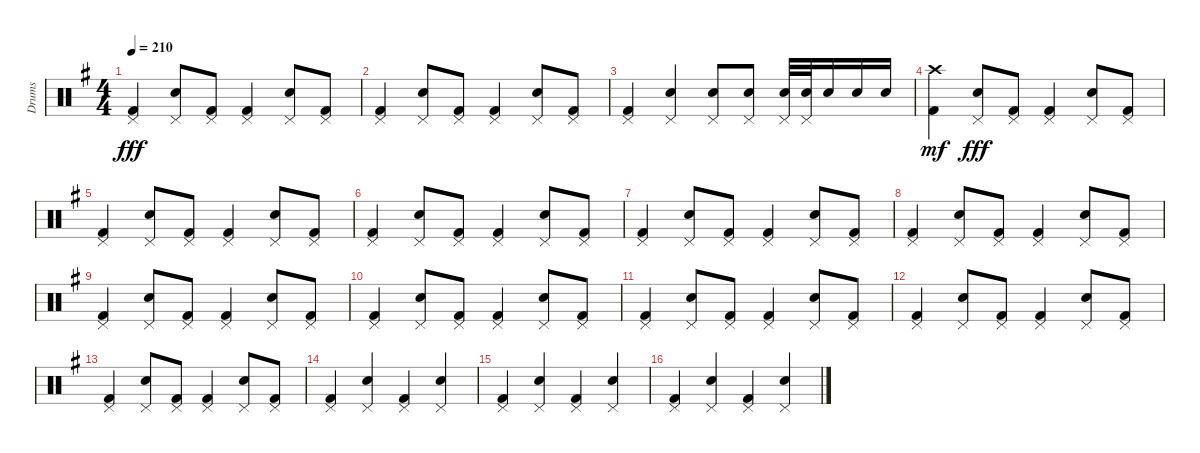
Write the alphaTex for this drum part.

\track ("Drums" "Drums") {instrument percussion}
\staff {score}
\articulation defaults
\ts (4 4)
\tempo 210
\clef neutral
\ks g
("Kick (hit) 2" "Pedal Hi-Hat (hit)").4{dy fff} ("Electric Snare (hit)" "Pedal Hi-Hat (hit)").8 ("Kick (hit) 2" "Pedal Hi-Hat (hit)").8 ("Kick (hit) 2" "Pedal Hi-Hat (hit)").4 ("Electric Snare (hit)" "Pedal Hi-Hat (hit)").8 ("Kick (hit) 2" "Pedal Hi-Hat (hit)").8 |
("Kick (hit) 2" "Pedal Hi-Hat (hit)").4 ("Electric Snare (hit)" "Pedal Hi-Hat (hit)").8 ("Kick (hit) 2" "Pedal Hi-Hat (hit)").8 ("Kick (hit) 2" "Pedal Hi-Hat (hit)").4 ("Electric Snare (hit)" "Pedal Hi-Hat (hit)").8 ("Kick (hit) 2" "Pedal Hi-Hat (hit)").8 |
("Kick (hit) 2" "Pedal Hi-Hat (hit)").4 ("Electric Snare (hit)" "Pedal Hi-Hat (hit)").4 ("Electric Snare (hit)" "Pedal Hi-Hat (hit)").8 ("Electric Snare (hit)" "Pedal Hi-Hat (hit)").8 ("Electric Snare (hit)" "Pedal Hi-Hat (hit)").32 ("Electric Snare (hit)" "Pedal Hi-Hat (hit)").32 "Electric Snare (hit)".16 "Electric Snare (hit)".16 "Electric Snare (hit)".16 |
("Kick (hit) 2" "Crash high (hit)").4{dy mf} ("Electric Snare (hit)" "Pedal Hi-Hat (hit)").8{dy fff} ("Kick (hit) 2" "Pedal Hi-Hat (hit)").8 ("Kick (hit) 2" "Pedal Hi-Hat (hit)").4 ("Electric Snare (hit)" "Pedal Hi-Hat (hit)").8 ("Kick (hit) 2" "Pedal Hi-Hat (hit)").8 |
("Kick (hit) 2" "Pedal Hi-Hat (hit)").4 ("Electric Snare (hit)" "Pedal Hi-Hat (hit)").8 ("Kick (hit) 2" "Pedal Hi-Hat (hit)").8 ("Kick (hit) 2" "Pedal Hi-Hat (hit)").4 ("Electric Snare (hit)" "Pedal Hi-Hat (hit)").8 ("Kick (hit) 2" "Pedal Hi-Hat (hit)").8 |
("Kick (hit) 2" "Pedal Hi-Hat (hit)").4 ("Electric Snare (hit)" "Pedal Hi-Hat (hit)").8 ("Kick (hit) 2" "Pedal Hi-Hat (hit)").8 ("Kick (hit) 2" "Pedal Hi-Hat (hit)").4 ("Electric Snare (hit)" "Pedal Hi-Hat (hit)").8 ("Kick (hit) 2" "Pedal Hi-Hat (hit)").8 |
("Kick (hit) 2" "Pedal Hi-Hat (hit)").4 ("Electric Snare (hit)" "Pedal Hi-Hat (hit)").8 ("Kick (hit) 2" "Pedal Hi-Hat (hit)").8 ("Kick (hit) 2" "Pedal Hi-Hat (hit)").4 ("Electric Snare (hit)" "Pedal Hi-Hat (hit)").8 ("Kick (hit) 2" "Pedal Hi-Hat (hit)").8 |
("Kick (hit) 2" "Pedal Hi-Hat (hit)").4 ("Electric Snare (hit)" "Pedal Hi-Hat (hit)").8 ("Kick (hit) 2" "Pedal Hi-Hat (hit)").8 ("Kick (hit) 2" "Pedal Hi-Hat (hit)").4 ("Electric Snare (hit)" "Pedal Hi-Hat (hit)").8 ("Kick (hit) 2" "Pedal Hi-Hat (hit)").8 |
("Kick (hit) 2" "Pedal Hi-Hat (hit)").4 ("Electric Snare (hit)" "Pedal Hi-Hat (hit)").8 ("Kick (hit) 2" "Pedal Hi-Hat (hit)").8 ("Kick (hit) 2" "Pedal Hi-Hat (hit)").4 ("Electric Snare (hit)" "Pedal Hi-Hat (hit)").8 ("Kick (hit) 2" "Pedal Hi-Hat (hit)").8 |
("Kick (hit) 2" "Pedal Hi-Hat (hit)").4 ("Electric Snare (hit)" "Pedal Hi-Hat (hit)").8 ("Kick (hit) 2" "Pedal Hi-Hat (hit)").8 ("Kick (hit) 2" "Pedal Hi-Hat (hit)").4 ("Electric Snare (hit)" "Pedal Hi-Hat (hit)").8 ("Kick (hit) 2" "Pedal Hi-Hat (hit)").8 |
("Kick (hit) 2" "Pedal Hi-Hat (hit)").4 ("Electric Snare (hit)" "Pedal Hi-Hat (hit)").8 ("Kick (hit) 2" "Pedal Hi-Hat (hit)").8 ("Kick (hit) 2" "Pedal Hi-Hat (hit)").4 ("Electric Snare (hit)" "Pedal Hi-Hat (hit)").8 ("Kick (hit) 2" "Pedal Hi-Hat (hit)").8 |
("Kick (hit) 2" "Pedal Hi-Hat (hit)").4 ("Electric Snare (hit)" "Pedal Hi-Hat (hit)").8 ("Kick (hit) 2" "Pedal Hi-Hat (hit)").8 ("Kick (hit) 2" "Pedal Hi-Hat (hit)").4 ("Electric Snare (hit)" "Pedal Hi-Hat (hit)").8 ("Kick (hit) 2" "Pedal Hi-Hat (hit)").8 |
("Kick (hit) 2" "Pedal Hi-Hat (hit)").4 ("Electric Snare (hit)" "Pedal Hi-Hat (hit)").8 ("Kick (hit) 2" "Pedal Hi-Hat (hit)").8 ("Kick (hit) 2" "Pedal Hi-Hat (hit)").4 ("Electric Snare (hit)" "Pedal Hi-Hat (hit)").8 ("Kick (hit) 2" "Pedal Hi-Hat (hit)").8 |
("Kick (hit) 2" "Pedal Hi-Hat (hit)").4 ("Electric Snare (hit)" "Pedal Hi-Hat (hit)").4 ("Kick (hit) 2" "Pedal Hi-Hat (hit)").4 ("Electric Snare (hit)" "Pedal Hi-Hat (hit)").4 |
("Kick (hit) 2" "Pedal Hi-Hat (hit)").4 ("Electric Snare (hit)" "Pedal Hi-Hat (hit)").4 ("Kick (hit) 2" "Pedal Hi-Hat (hit)").4 ("Electric Snare (hit)" "Pedal Hi-Hat (hit)").4 |
("Kick (hit) 2" "Pedal Hi-Hat (hit)").4 ("Electric Snare (hit)" "Pedal Hi-Hat (hit)").4 ("Kick (hit) 2" "Pedal Hi-Hat (hit)").4 ("Electric Snare (hit)" "Pedal Hi-Hat (hit)").4
